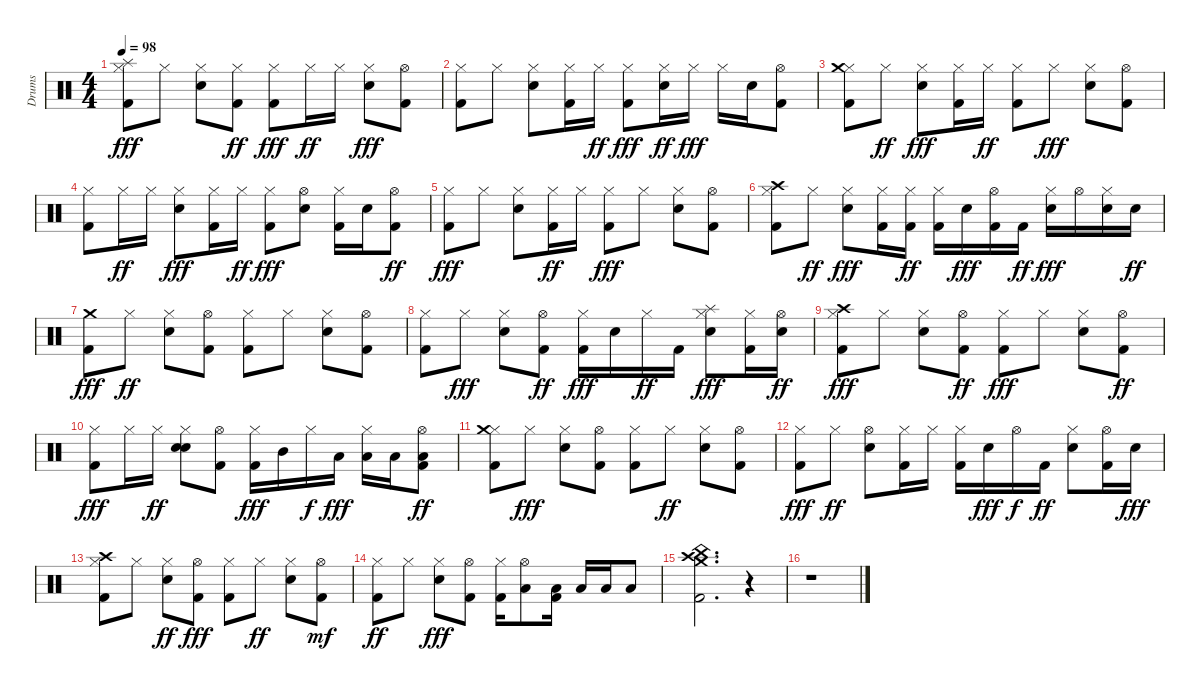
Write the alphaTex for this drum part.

\track ("Drums" "Drums") {instrument percussion}
\staff {score}
\articulation defaults
\ts (4 4)
\tempo 98
\clef neutral
\ks c
("Kick (hit) 2" "Hi-Hat (closed)" "Splash (hit)").8{dy fff} "Hi-Hat (closed)".8 ("Snare (hit) 2" "Hi-Hat (closed)").8 ("Kick (hit) 2" "Hi-Hat (closed)").8{dy ff} ("Kick (hit) 2" "Hi-Hat (closed)").8{dy fff} "Hi-Hat (closed)".16{dy ff} "Hi-Hat (closed)".16 ("Snare (hit) 2" "Hi-Hat (closed)").8{dy fff} ("Kick (hit) 2" "Hi-Hat (open)").8 |
("Kick (hit) 2" "Hi-Hat (closed)").8 "Hi-Hat (closed)".8 ("Snare (hit) 2" "Hi-Hat (closed)").8 ("Kick (hit) 2" "Hi-Hat (closed)").16 "Hi-Hat (closed)".16{dy ff} ("Kick (hit) 2" "Hi-Hat (closed)").8{dy fff} ("Snare (hit) 2" "Hi-Hat (closed)").16{dy ff} "Hi-Hat (closed)".16{dy fff} "Hi-Hat (closed)".16 "Snare (hit) 2".16 ("Kick (hit) 2" "Hi-Hat (open)").8 |
("Kick (hit) 2" "Hi-Hat (closed)" "Crash medium (hit)").8 "Hi-Hat (closed)".8{dy ff} ("Snare (hit) 2" "Hi-Hat (closed)").8{dy fff} ("Kick (hit) 2" "Hi-Hat (closed)").16 "Hi-Hat (closed)".16{dy ff} ("Kick (hit) 2" "Hi-Hat (closed)").8 "Hi-Hat (closed)".8{dy fff} ("Snare (hit) 2" "Hi-Hat (closed)").8 ("Kick (hit) 2" "Hi-Hat (open)").8 |
("Kick (hit) 2" "Hi-Hat (closed)").8 "Hi-Hat (closed)".16{dy ff} "Hi-Hat (closed)".16 ("Snare (hit) 2" "Hi-Hat (closed)").8{dy fff} ("Kick (hit) 2" "Hi-Hat (closed)").16 "Hi-Hat (closed)".16{dy ff} ("Kick (hit) 2" "Hi-Hat (closed)").8{dy fff} ("Snare (hit) 2" "Hi-Hat (open)").8 ("Kick (hit) 2" "Hi-Hat (closed)").16 "Snare (hit) 2".16 ("Kick (hit) 2" "Hi-Hat (open)").8{dy ff} |
("Kick (hit) 2" "Hi-Hat (closed)").8{dy fff} "Hi-Hat (closed)".8 ("Snare (hit) 2" "Hi-Hat (closed)").8 ("Kick (hit) 2" "Hi-Hat (closed)").16{dy ff} "Hi-Hat (closed)".16 ("Kick (hit) 2" "Hi-Hat (closed)").8{dy fff} "Hi-Hat (closed)".8 ("Snare (hit) 2" "Hi-Hat (closed)").8 ("Kick (hit) 2" "Hi-Hat (open)").8 |
("Kick (hit) 2" "Hi-Hat (closed)" "Crash high (hit)").8 "Hi-Hat (closed)".8{dy ff} ("Snare (hit) 2" "Hi-Hat (closed)").8{dy fff} ("Kick (hit) 2" "Hi-Hat (closed)").16 ("Kick (hit) 2" "Hi-Hat (closed)").16{dy ff} ("Kick (hit) 2" "Hi-Hat (closed)").16 "Snare (hit) 2".16{dy fff} ("Kick (hit) 2" "Hi-Hat (open)").16 "Kick (hit) 2".16{dy ff} ("Snare (hit) 2" "Hi-Hat (closed)").16{dy fff} "Hi-Hat (open)".16 ("Snare (hit) 2" "Hi-Hat (closed)").16 "Snare (hit) 2".16{dy ff} |
("Kick (hit) 2" "Crash medium (hit)").8{dy fff} "Hi-Hat (closed)".8{dy ff} ("Snare (hit) 2" "Hi-Hat (closed)").8 ("Kick (hit) 2" "Hi-Hat (open)").8 ("Kick (hit) 2" "Hi-Hat (closed)").8 "Hi-Hat (closed)".8 ("Snare (hit) 2" "Hi-Hat (closed)").8 ("Kick (hit) 2" "Hi-Hat (open)").8 |
("Kick (hit) 2" "Hi-Hat (closed)").8 "Hi-Hat (closed)".8{dy fff} ("Snare (hit) 2" "Hi-Hat (closed)").8 ("Kick (hit) 2" "Hi-Hat (open)").8{dy ff} ("Kick (hit) 2" "Hi-Hat (closed)").16{dy fff} "Snare (hit) 2".16 "Hi-Hat (closed)".16{dy ff} "Kick (hit) 2".16 ("Snare (hit) 2" "Hi-Hat (closed)" "Splash (hit)").8{dy fff} ("Kick (hit) 2" "Hi-Hat (closed)").16 ("Snare (hit) 2" "Hi-Hat (open)").16{dy ff} |
("Kick (hit) 2" "Hi-Hat (closed)" "Crash high (hit)").8{dy fff} "Hi-Hat (closed)".8 ("Snare (hit) 2" "Hi-Hat (closed)").8 ("Kick (hit) 2" "Hi-Hat (open)").8{dy ff} ("Kick (hit) 2" "Hi-Hat (closed)").8{dy fff} "Hi-Hat (closed)".8 ("Snare (hit) 2" "Hi-Hat (closed)").8 ("Kick (hit) 2" "Hi-Hat (open)").8{dy ff} |
("Kick (hit) 2" "Hi-Hat (closed)").8{dy fff} "Hi-Hat (closed)".16 "Hi-Hat (closed)".16{dy ff} ("Snare (hit) 2" "Electric Snare (hit)" "Hi-Hat (closed)").8 ("Kick (hit) 2" "Hi-Hat (open)").8 ("Kick (hit) 2" "Hi-Hat (closed)").16{dy fff} "Mid Tom (hit)".16 "Hi-Hat (closed)".16{dy f} "Low Tom (hit)".16{dy fff} ("Low Tom (hit)" "Hi-Hat (closed)").16 "Low Tom (hit)".16 ("Kick (hit) 2" "Low Floor Tom (hit)" "Hi-Hat (open)").8{dy ff} |
("Kick (hit) 2" "Hi-Hat (closed)" "Crash medium (hit)").8 "Hi-Hat (closed)".8{dy fff} ("Snare (hit) 2" "Hi-Hat (closed)").8 ("Kick (hit) 2" "Hi-Hat (open)").8 ("Kick (hit) 2" "Hi-Hat (closed)").8 "Hi-Hat (closed)".8{dy ff} ("Snare (hit) 2" "Hi-Hat (closed)").8 ("Kick (hit) 2" "Hi-Hat (open)").8 |
("Kick (hit) 2" "Hi-Hat (closed)").8{dy fff} "Hi-Hat (closed)".8{dy ff} ("Snare (hit) 2" "Hi-Hat (open)").8 ("Kick (hit) 2" "Hi-Hat (closed)").16 "Hi-Hat (closed)".16 ("Kick (hit) 2" "Hi-Hat (closed)").16 "Snare (hit) 2".16{dy fff} "Hi-Hat (open)".16{dy f} "Kick (hit) 2".16{dy ff} ("Snare (hit) 2" "Hi-Hat (closed)").8 ("Kick (hit) 2" "Hi-Hat (open)").16 "Snare (hit) 2".16{dy fff} |
("Kick (hit) 2" "Hi-Hat (closed)" "Crash high (hit)").8 "Hi-Hat (closed)".8 ("Snare (hit) 2" "Hi-Hat (closed)").8{dy ff} ("Kick (hit) 2" "Hi-Hat (open)").8{dy fff} ("Kick (hit) 2" "Hi-Hat (closed)").8 "Hi-Hat (closed)".8{dy ff} ("Snare (hit) 2" "Hi-Hat (closed)").8 ("Kick (hit) 2" "Hi-Hat (open)").8{dy mf} |
("Kick (hit) 2" "Hi-Hat (closed)").8{dy ff} "Hi-Hat (closed)".8 ("Snare (hit) 2" "Hi-Hat (closed)").8{dy fff} ("Kick (hit) 2" "Hi-Hat (open)").8 ("Kick (hit) 2" "Hi-Hat (closed)").16 ("Low Tom (hit)" "Hi-Hat (open)").8 ("Kick (hit) 2" "Low Floor Tom (hit)").16 "Low Tom (hit)".16 "Low Floor Tom (hit)".16 "Low Tom (hit)".8 |
("Kick (hit) 2" "Crash high (hit)" "China (hit)" "Crash medium (hit)").2{d} r.4 |
r.1
